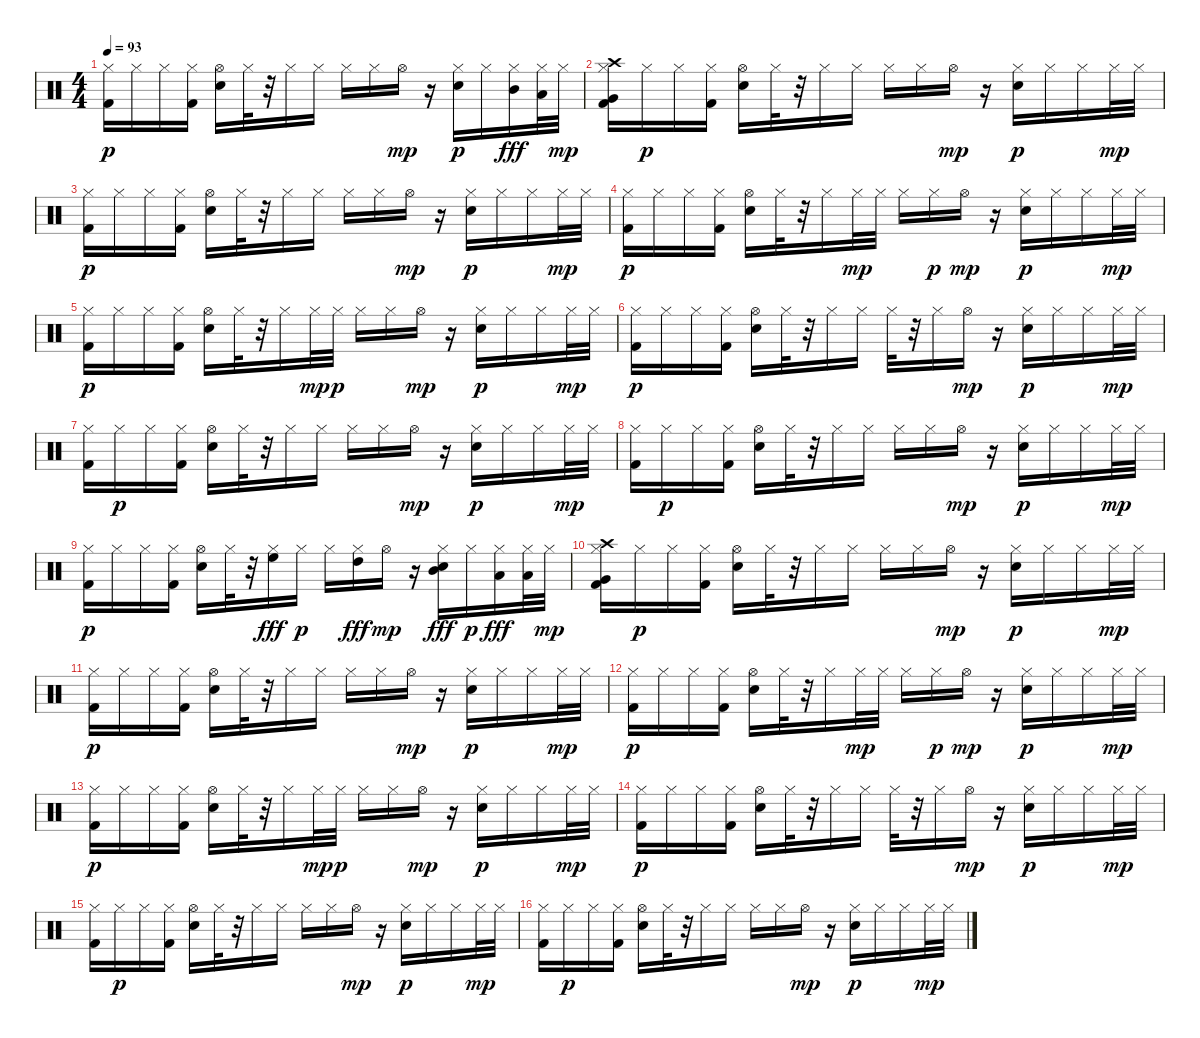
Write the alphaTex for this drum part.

\track "" {instrument percussion}
\staff {score}
\articulation defaults
\ts (4 4)
\tempo 93
\clef neutral
\ks c
("Hi-Hat (closed)" "Kick (hit) 2").16{dy p} "Hi-Hat (closed)".16 "Hi-Hat (closed)".16 ("Hi-Hat (closed)" "Kick (hit) 2").16 ("Hi-Hat (open)" "Snare (hit) 2").16 "Hi-Hat (closed)".32 r.32 "Hi-Hat (closed)".16 "Hi-Hat (closed)".16 "Hi-Hat (closed)".16 "Hi-Hat (closed)".16 "Hi-Hat (open)".16{dy mp} r.16 ("Hi-Hat (closed)" "Snare (hit) 2").16{dy p} "Hi-Hat (closed)".16 ("Hi-Hat (closed)" "Mid Tom (hit)").16{dy fff} ("Hi-Hat (closed)" "Low Tom (hit)").32 "Hi-Hat (closed)".32{dy mp} |
("Hi-Hat (closed)" "Kick (hit) 2" "Very Low Tom (hit)" "Crash high (hit)").16 "Hi-Hat (closed)".16{dy p} "Hi-Hat (closed)".16 ("Hi-Hat (closed)" "Kick (hit) 2").16 ("Hi-Hat (open)" "Snare (hit) 2").16 "Hi-Hat (closed)".32 r.32 "Hi-Hat (closed)".16 "Hi-Hat (closed)".16 "Hi-Hat (closed)".16 "Hi-Hat (closed)".16 "Hi-Hat (open)".16{dy mp} r.16 ("Hi-Hat (closed)" "Snare (hit) 2").16{dy p} "Hi-Hat (closed)".16 "Hi-Hat (closed)".16 "Hi-Hat (closed)".32{dy mp} "Hi-Hat (closed)".32 |
("Hi-Hat (closed)" "Kick (hit) 2").16{dy p} "Hi-Hat (closed)".16 "Hi-Hat (closed)".16 ("Hi-Hat (closed)" "Kick (hit) 2").16 ("Hi-Hat (open)" "Snare (hit) 2").16 "Hi-Hat (closed)".32 r.32 "Hi-Hat (closed)".16 "Hi-Hat (closed)".16 "Hi-Hat (closed)".16 "Hi-Hat (closed)".16 "Hi-Hat (open)".16{dy mp} r.16 ("Hi-Hat (closed)" "Snare (hit) 2").16{dy p} "Hi-Hat (closed)".16 "Hi-Hat (closed)".16 "Hi-Hat (closed)".32{dy mp} "Hi-Hat (closed)".32 |
("Hi-Hat (closed)" "Kick (hit) 2").16{dy p} "Hi-Hat (closed)".16 "Hi-Hat (closed)".16 ("Hi-Hat (closed)" "Kick (hit) 2").16 ("Hi-Hat (open)" "Snare (hit) 2").16 "Hi-Hat (closed)".32 r.32 "Hi-Hat (closed)".16 "Hi-Hat (closed)".32{dy mp} "Hi-Hat (closed)".32 "Hi-Hat (closed)".16 "Hi-Hat (closed)".16{dy p} "Hi-Hat (open)".16{dy mp} r.16 ("Hi-Hat (closed)" "Snare (hit) 2").16{dy p} "Hi-Hat (closed)".16 "Hi-Hat (closed)".16 "Hi-Hat (closed)".32{dy mp} "Hi-Hat (closed)".32 |
("Hi-Hat (closed)" "Kick (hit) 2").16{dy p} "Hi-Hat (closed)".16 "Hi-Hat (closed)".16 ("Hi-Hat (closed)" "Kick (hit) 2").16 ("Hi-Hat (open)" "Snare (hit) 2").16 "Hi-Hat (closed)".32 r.32 "Hi-Hat (closed)".16 "Hi-Hat (closed)".32{dy mp} "Hi-Hat (closed)".32{dy p} "Hi-Hat (closed)".16 "Hi-Hat (closed)".16 "Hi-Hat (open)".16{dy mp} r.16 ("Hi-Hat (closed)" "Snare (hit) 2").16{dy p} "Hi-Hat (closed)".16 "Hi-Hat (closed)".16 "Hi-Hat (closed)".32{dy mp} "Hi-Hat (closed)".32 |
("Hi-Hat (closed)" "Kick (hit) 2").16{dy p} "Hi-Hat (closed)".16 "Hi-Hat (closed)".16 ("Hi-Hat (closed)" "Kick (hit) 2").16 ("Hi-Hat (open)" "Snare (hit) 2").16 "Hi-Hat (closed)".32 r.32 "Hi-Hat (closed)".16 "Hi-Hat (closed)".16 "Hi-Hat (closed)".32 r.32 "Hi-Hat (closed)".16 "Hi-Hat (open)".16{dy mp} r.16 ("Hi-Hat (closed)" "Snare (hit) 2").16{dy p} "Hi-Hat (closed)".16 "Hi-Hat (closed)".16 "Hi-Hat (closed)".32{dy mp} "Hi-Hat (closed)".32 |
("Hi-Hat (closed)" "Kick (hit) 2").16 "Hi-Hat (closed)".16{dy p} "Hi-Hat (closed)".16 ("Hi-Hat (closed)" "Kick (hit) 2").16 ("Hi-Hat (open)" "Snare (hit) 2").16 "Hi-Hat (closed)".32 r.32 "Hi-Hat (closed)".16 "Hi-Hat (closed)".16 "Hi-Hat (closed)".16 "Hi-Hat (closed)".16 "Hi-Hat (open)".16{dy mp} r.16 ("Hi-Hat (closed)" "Snare (hit) 2").16{dy p} "Hi-Hat (closed)".16 "Hi-Hat (closed)".16 "Hi-Hat (closed)".32{dy mp} "Hi-Hat (closed)".32 |
("Hi-Hat (closed)" "Kick (hit) 2").16 "Hi-Hat (closed)".16{dy p} "Hi-Hat (closed)".16 ("Hi-Hat (closed)" "Kick (hit) 2").16 ("Hi-Hat (open)" "Snare (hit) 2").16 "Hi-Hat (closed)".32 r.32 "Hi-Hat (closed)".16 "Hi-Hat (closed)".16 "Hi-Hat (closed)".16 "Hi-Hat (closed)".16 "Hi-Hat (open)".16{dy mp} r.16 ("Hi-Hat (closed)" "Snare (hit) 2").16{dy p} "Hi-Hat (closed)".16 "Hi-Hat (closed)".16 "Hi-Hat (closed)".32{dy mp} "Hi-Hat (closed)".32 |
("Hi-Hat (closed)" "Kick (hit) 2").16{dy p} "Hi-Hat (closed)".16 "Hi-Hat (closed)".16 ("Hi-Hat (closed)" "Kick (hit) 2").16 ("Hi-Hat (open)" "Snare (hit) 2").16 "Hi-Hat (closed)".32 r.32 ("Hi-Hat (closed)" "High Floor Tom (hit)").16{dy fff} "Hi-Hat (closed)".16{dy p} "Hi-Hat (closed)".16 ("Hi-Hat (closed)" "High Tom (hit)").16{dy fff} "Hi-Hat (open)".16{dy mp} r.16 ("Hi-Hat (closed)" "Snare (hit) 2" "Mid Tom (hit)").16{dy fff} "Hi-Hat (closed)".16{dy p} ("Hi-Hat (closed)" "Low Tom (hit)").16{dy fff} ("Hi-Hat (closed)" "Low Tom (hit)").32 "Hi-Hat (closed)".32{dy mp} |
("Hi-Hat (closed)" "Kick (hit) 2" "Very Low Tom (hit)" "Crash high (hit)").16 "Hi-Hat (closed)".16{dy p} "Hi-Hat (closed)".16 ("Hi-Hat (closed)" "Kick (hit) 2").16 ("Hi-Hat (open)" "Snare (hit) 2").16 "Hi-Hat (closed)".32 r.32 "Hi-Hat (closed)".16 "Hi-Hat (closed)".16 "Hi-Hat (closed)".16 "Hi-Hat (closed)".16 "Hi-Hat (open)".16{dy mp} r.16 ("Hi-Hat (closed)" "Snare (hit) 2").16{dy p} "Hi-Hat (closed)".16 "Hi-Hat (closed)".16 "Hi-Hat (closed)".32{dy mp} "Hi-Hat (closed)".32 |
("Hi-Hat (closed)" "Kick (hit) 2").16{dy p} "Hi-Hat (closed)".16 "Hi-Hat (closed)".16 ("Hi-Hat (closed)" "Kick (hit) 2").16 ("Hi-Hat (open)" "Snare (hit) 2").16 "Hi-Hat (closed)".32 r.32 "Hi-Hat (closed)".16 "Hi-Hat (closed)".16 "Hi-Hat (closed)".16 "Hi-Hat (closed)".16 "Hi-Hat (open)".16{dy mp} r.16 ("Hi-Hat (closed)" "Snare (hit) 2").16{dy p} "Hi-Hat (closed)".16 "Hi-Hat (closed)".16 "Hi-Hat (closed)".32{dy mp} "Hi-Hat (closed)".32 |
("Hi-Hat (closed)" "Kick (hit) 2").16{dy p} "Hi-Hat (closed)".16 "Hi-Hat (closed)".16 ("Hi-Hat (closed)" "Kick (hit) 2").16 ("Hi-Hat (open)" "Snare (hit) 2").16 "Hi-Hat (closed)".32 r.32 "Hi-Hat (closed)".16 "Hi-Hat (closed)".32{dy mp} "Hi-Hat (closed)".32 "Hi-Hat (closed)".16 "Hi-Hat (closed)".16{dy p} "Hi-Hat (open)".16{dy mp} r.16 ("Hi-Hat (closed)" "Snare (hit) 2").16{dy p} "Hi-Hat (closed)".16 "Hi-Hat (closed)".16 "Hi-Hat (closed)".32{dy mp} "Hi-Hat (closed)".32 |
("Hi-Hat (closed)" "Kick (hit) 2").16{dy p} "Hi-Hat (closed)".16 "Hi-Hat (closed)".16 ("Hi-Hat (closed)" "Kick (hit) 2").16 ("Hi-Hat (open)" "Snare (hit) 2").16 "Hi-Hat (closed)".32 r.32 "Hi-Hat (closed)".16 "Hi-Hat (closed)".32{dy mp} "Hi-Hat (closed)".32{dy p} "Hi-Hat (closed)".16 "Hi-Hat (closed)".16 "Hi-Hat (open)".16{dy mp} r.16 ("Hi-Hat (closed)" "Snare (hit) 2").16{dy p} "Hi-Hat (closed)".16 "Hi-Hat (closed)".16 "Hi-Hat (closed)".32{dy mp} "Hi-Hat (closed)".32 |
("Hi-Hat (closed)" "Kick (hit) 2").16{dy p} "Hi-Hat (closed)".16 "Hi-Hat (closed)".16 ("Hi-Hat (closed)" "Kick (hit) 2").16 ("Hi-Hat (open)" "Snare (hit) 2").16 "Hi-Hat (closed)".32 r.32 "Hi-Hat (closed)".16 "Hi-Hat (closed)".16 "Hi-Hat (closed)".32 r.32 "Hi-Hat (closed)".16 "Hi-Hat (open)".16{dy mp} r.16 ("Hi-Hat (closed)" "Snare (hit) 2").16{dy p} "Hi-Hat (closed)".16 "Hi-Hat (closed)".16 "Hi-Hat (closed)".32{dy mp} "Hi-Hat (closed)".32 |
("Hi-Hat (closed)" "Kick (hit) 2").16 "Hi-Hat (closed)".16{dy p} "Hi-Hat (closed)".16 ("Hi-Hat (closed)" "Kick (hit) 2").16 ("Hi-Hat (open)" "Snare (hit) 2").16 "Hi-Hat (closed)".32 r.32 "Hi-Hat (closed)".16 "Hi-Hat (closed)".16 "Hi-Hat (closed)".16 "Hi-Hat (closed)".16 "Hi-Hat (open)".16{dy mp} r.16 ("Hi-Hat (closed)" "Snare (hit) 2").16{dy p} "Hi-Hat (closed)".16 "Hi-Hat (closed)".16 "Hi-Hat (closed)".32{dy mp} "Hi-Hat (closed)".32 |
("Hi-Hat (closed)" "Kick (hit) 2").16 "Hi-Hat (closed)".16{dy p} "Hi-Hat (closed)".16 ("Hi-Hat (closed)" "Kick (hit) 2").16 ("Hi-Hat (open)" "Snare (hit) 2").16 "Hi-Hat (closed)".32 r.32 "Hi-Hat (closed)".16 "Hi-Hat (closed)".16 "Hi-Hat (closed)".16 "Hi-Hat (closed)".16 "Hi-Hat (open)".16{dy mp} r.16 ("Hi-Hat (closed)" "Snare (hit) 2").16{dy p} "Hi-Hat (closed)".16 "Hi-Hat (closed)".16 "Hi-Hat (closed)".32{dy mp} "Hi-Hat (closed)".32
